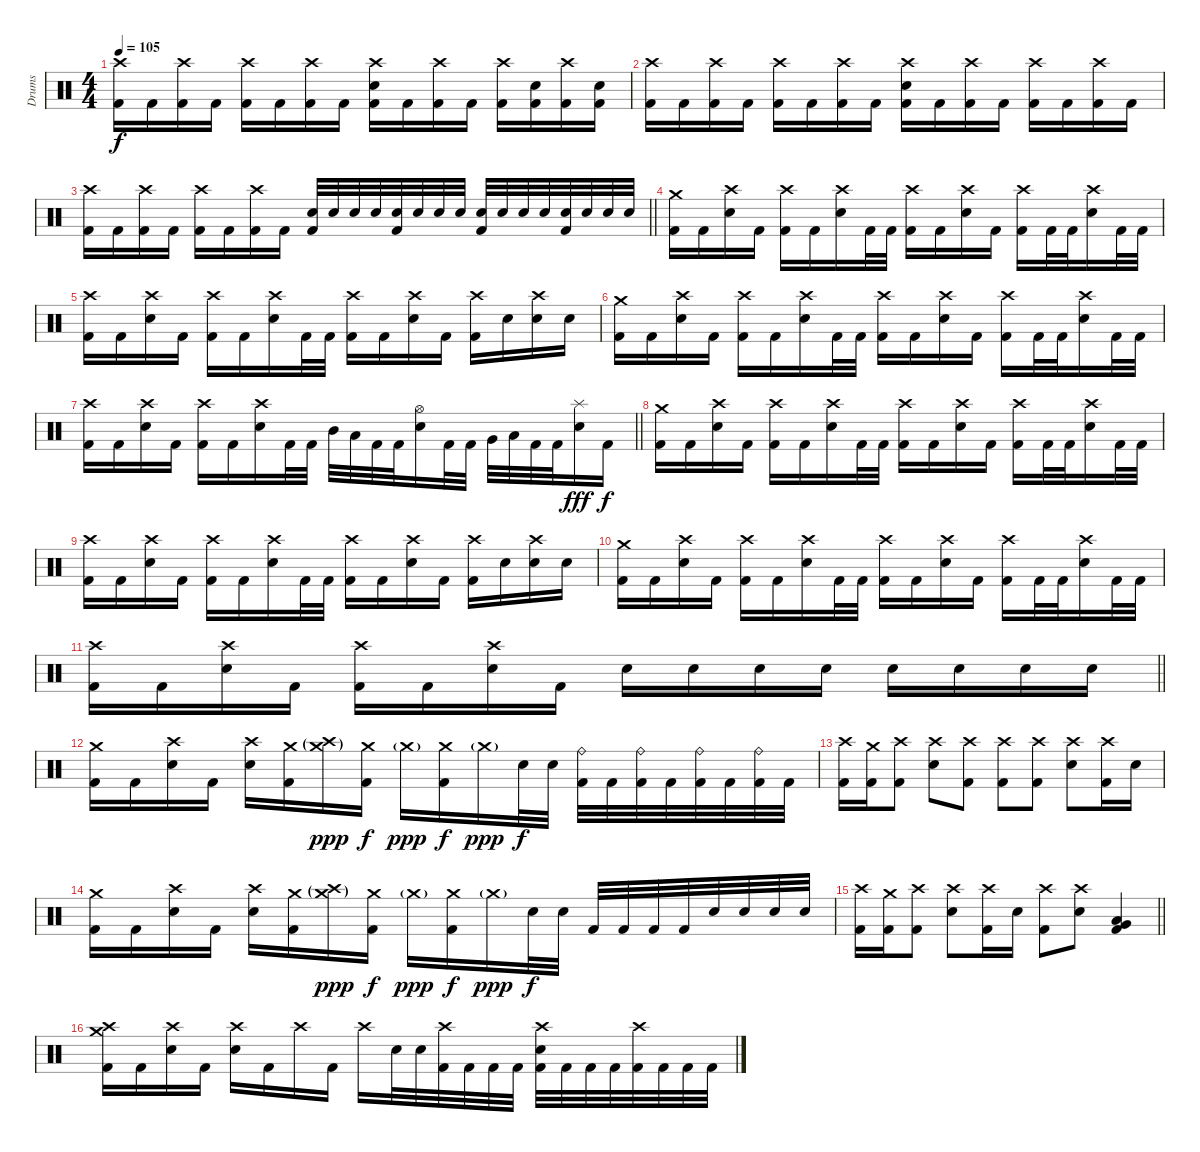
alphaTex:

\track ("Drums" "Drums") {instrument percussion}
\staff {score}
\articulation defaults
\ts (4 4)
\tempo 105
\clef neutral
\ks c
("Crash high (hit)" "Kick (hit) 2").16{dy f} "Kick (hit) 2".16 ("Crash high (hit)" "Kick (hit) 2").16 "Kick (hit) 2".16 ("Crash high (hit)" "Kick (hit) 2").16 "Kick (hit) 2".16 ("Crash high (hit)" "Kick (hit) 2").16 "Kick (hit) 2".16 ("Crash high (hit)" "Electric Snare (hit)" "Kick (hit) 2").16 "Kick (hit) 2".16 ("Crash high (hit)" "Kick (hit) 2").16 "Kick (hit) 2".16 ("Crash high (hit)" "Kick (hit) 2").16 ("Electric Snare (hit)" "Kick (hit) 2").16 ("Crash high (hit)" "Kick (hit) 2").16 ("Electric Snare (hit)" "Kick (hit) 2").16 |
("Crash high (hit)" "Kick (hit) 2").16 "Kick (hit) 2".16 ("Crash high (hit)" "Kick (hit) 2").16 "Kick (hit) 2".16 ("Crash high (hit)" "Kick (hit) 2").16 "Kick (hit) 2".16 ("Crash high (hit)" "Kick (hit) 2").16 "Kick (hit) 2".16 ("Crash high (hit)" "Electric Snare (hit)" "Kick (hit) 2").16 "Kick (hit) 2".16 ("Crash high (hit)" "Kick (hit) 2").16 "Kick (hit) 2".16 ("Crash high (hit)" "Kick (hit) 2").16 "Kick (hit) 2".16 ("Crash high (hit)" "Kick (hit) 2").16 "Kick (hit) 2".16 |
\barLineRight lightlight
("Crash high (hit)" "Kick (hit) 2").16 "Kick (hit) 2".16 ("Crash high (hit)" "Kick (hit) 2").16 "Kick (hit) 2".16 ("Crash high (hit)" "Kick (hit) 2").16 "Kick (hit) 2".16 ("Crash high (hit)" "Kick (hit) 2").16 "Kick (hit) 2".16 ("Electric Snare (hit)" "Kick (hit) 2").32 "Electric Snare (hit)".32 "Electric Snare (hit)".32 "Electric Snare (hit)".32 ("Electric Snare (hit)" "Kick (hit) 2").32 "Electric Snare (hit)".32 "Electric Snare (hit)".32 "Electric Snare (hit)".32 ("Electric Snare (hit)" "Kick (hit) 2").32 "Electric Snare (hit)".32 "Electric Snare (hit)".32 "Electric Snare (hit)".32 ("Electric Snare (hit)" "Kick (hit) 2").32 "Electric Snare (hit)".32 "Electric Snare (hit)".32 "Electric Snare (hit)".32 |
\section ("" "")
("Crash medium (hit)" "Kick (hit) 2").16 "Kick (hit) 2".16 ("Crash high (hit)" "Electric Snare (hit)").16 "Kick (hit) 2".16 ("Crash high (hit)" "Kick (hit) 2").16 "Kick (hit) 2".16 ("Crash high (hit)" "Electric Snare (hit)").16 "Kick (hit) 2".32 "Kick (hit) 2".32 ("Crash high (hit)" "Kick (hit) 2").16 "Kick (hit) 2".16 ("Crash high (hit)" "Electric Snare (hit)").16 "Kick (hit) 2".16 ("Crash high (hit)" "Kick (hit) 2").16 "Kick (hit) 2".32 "Kick (hit) 2".32 ("Crash high (hit)" "Electric Snare (hit)").16 "Kick (hit) 2".32 "Kick (hit) 2".32 |
("Crash high (hit)" "Kick (hit) 2").16 "Kick (hit) 2".16 ("Crash high (hit)" "Electric Snare (hit)").16 "Kick (hit) 2".16 ("Crash high (hit)" "Kick (hit) 2").16 "Kick (hit) 2".16 ("Crash high (hit)" "Electric Snare (hit)").16 "Kick (hit) 2".32 "Kick (hit) 2".32 ("Crash high (hit)" "Kick (hit) 2").16 "Kick (hit) 2".16 ("Crash high (hit)" "Electric Snare (hit)").16 "Kick (hit) 2".16 ("Crash high (hit)" "Kick (hit) 2").16 "Electric Snare (hit)".16 ("Crash high (hit)" "Electric Snare (hit)").16 "Electric Snare (hit)".16 |
("Crash medium (hit)" "Kick (hit) 2").16 "Kick (hit) 2".16 ("Crash high (hit)" "Electric Snare (hit)").16 "Kick (hit) 2".16 ("Crash high (hit)" "Kick (hit) 2").16 "Kick (hit) 2".16 ("Crash high (hit)" "Electric Snare (hit)").16 "Kick (hit) 2".32 "Kick (hit) 2".32 ("Crash high (hit)" "Kick (hit) 2").16 "Kick (hit) 2".16 ("Crash high (hit)" "Electric Snare (hit)").16 "Kick (hit) 2".16 ("Crash high (hit)" "Kick (hit) 2").16 "Kick (hit) 2".32 "Kick (hit) 2".32 ("Crash high (hit)" "Electric Snare (hit)").16 "Kick (hit) 2".32 "Kick (hit) 2".32 |
\barLineRight lightlight
("Crash high (hit)" "Kick (hit) 2").16 "Kick (hit) 2".16 ("Crash high (hit)" "Electric Snare (hit)").16 "Kick (hit) 2".16 ("Crash high (hit)" "Kick (hit) 2").16 "Kick (hit) 2".16 ("Crash high (hit)" "Electric Snare (hit)").16 "Kick (hit) 2".32 "Kick (hit) 2".32 "Mid Tom (hit)".32 "Low Tom (hit)".32 "Kick (hit) 2".32 "Kick (hit) 2".32 ("Hi-Hat (open)" "Electric Snare (hit)").16 "Kick (hit) 2".32 "Kick (hit) 2".32 "Very Low Tom (hit)".32 "Low Floor Tom (hit)".32 "Kick (hit) 2".32 "Kick (hit) 2".32 ("Splash (hit)" "Electric Snare (hit)").16{dy fff} "Kick (hit) 2".16{dy f} |
\section ("" "")
("Crash medium (hit)" "Kick (hit) 2").16 "Kick (hit) 2".16 ("Crash high (hit)" "Electric Snare (hit)").16 "Kick (hit) 2".16 ("Crash high (hit)" "Kick (hit) 2").16 "Kick (hit) 2".16 ("Crash high (hit)" "Electric Snare (hit)").16 "Kick (hit) 2".32 "Kick (hit) 2".32 ("Crash high (hit)" "Kick (hit) 2").16 "Kick (hit) 2".16 ("Crash high (hit)" "Electric Snare (hit)").16 "Kick (hit) 2".16 ("Crash high (hit)" "Kick (hit) 2").16 "Kick (hit) 2".32 "Kick (hit) 2".32 ("Crash high (hit)" "Electric Snare (hit)").16 "Kick (hit) 2".32 "Kick (hit) 2".32 |
("Crash high (hit)" "Kick (hit) 2").16 "Kick (hit) 2".16 ("Crash high (hit)" "Electric Snare (hit)").16 "Kick (hit) 2".16 ("Crash high (hit)" "Kick (hit) 2").16 "Kick (hit) 2".16 ("Crash high (hit)" "Electric Snare (hit)").16 "Kick (hit) 2".32 "Kick (hit) 2".32 ("Crash high (hit)" "Kick (hit) 2").16 "Kick (hit) 2".16 ("Crash high (hit)" "Electric Snare (hit)").16 "Kick (hit) 2".16 ("Crash high (hit)" "Kick (hit) 2").16 "Electric Snare (hit)".16 ("Crash high (hit)" "Electric Snare (hit)").16 "Electric Snare (hit)".16 |
("Crash medium (hit)" "Kick (hit) 2").16 "Kick (hit) 2".16 ("Crash high (hit)" "Electric Snare (hit)").16 "Kick (hit) 2".16 ("Crash high (hit)" "Kick (hit) 2").16 "Kick (hit) 2".16 ("Crash high (hit)" "Electric Snare (hit)").16 "Kick (hit) 2".32 "Kick (hit) 2".32 ("Crash high (hit)" "Kick (hit) 2").16 "Kick (hit) 2".16 ("Crash high (hit)" "Electric Snare (hit)").16 "Kick (hit) 2".16 ("Crash high (hit)" "Kick (hit) 2").16 "Kick (hit) 2".32 "Kick (hit) 2".32 ("Crash high (hit)" "Electric Snare (hit)").16 "Kick (hit) 2".32 "Kick (hit) 2".32 |
\barLineRight lightlight
("Crash high (hit)" "Kick (hit) 2").16 "Kick (hit) 2".16 ("Crash high (hit)" "Electric Snare (hit)").16 "Kick (hit) 2".16 ("Crash high (hit)" "Kick (hit) 2").16 "Kick (hit) 2".16 ("Crash high (hit)" "Electric Snare (hit)").16 "Kick (hit) 2".16 "Electric Snare (hit)".16 "Electric Snare (hit)".16 "Electric Snare (hit)".16 "Electric Snare (hit)".16 "Electric Snare (hit)".16 "Electric Snare (hit)".16 "Electric Snare (hit)".16 "Electric Snare (hit)".16 |
\section ("" "")
("Crash medium (hit)" "Kick (hit) 2").16 "Kick (hit) 2".16 ("Crash high (hit)" "Electric Snare (hit)").16 "Kick (hit) 2".16 ("Crash high (hit)" "Electric Snare (hit)").16 ("Crash medium (hit)" "Kick (hit) 2").16 ("Crash medium (hit)"{g} "Crash high (hit)"{g}).16{dy ppp} ("Crash medium (hit)" "Kick (hit) 2").16{dy f} "Crash medium (hit)"{g}.16{dy ppp} ("Crash medium (hit)" "Kick (hit) 2").16{dy f} "Crash medium (hit)"{g}.16{dy ppp} "Electric Snare (hit)".32{dy f} "Electric Snare (hit)".32 ("Ride (bell)" "Kick (hit) 2").32 "Kick (hit) 2".32 ("Ride (bell)" "Kick (hit) 2").32 "Kick (hit) 2".32 ("Ride (bell)" "Kick (hit) 2").32 "Kick (hit) 2".32 ("Ride (bell)" "Kick (hit) 2").32 "Kick (hit) 2".32 |
("Crash high (hit)" "Kick (hit) 2").16 ("Crash medium (hit)" "Kick (hit) 2").16 ("Crash high (hit)" "Kick (hit) 2").8 ("Crash high (hit)" "Electric Snare (hit)").8 ("Crash high (hit)" "Kick (hit) 2").8 ("Crash high (hit)" "Kick (hit) 2").8 ("Crash high (hit)" "Kick (hit) 2").8 ("Crash high (hit)" "Electric Snare (hit)").8 ("Crash high (hit)" "Kick (hit) 2").16 "Electric Snare (hit)".16 |
("Crash medium (hit)" "Kick (hit) 2").16 "Kick (hit) 2".16 ("Crash high (hit)" "Electric Snare (hit)").16 "Kick (hit) 2".16 ("Crash high (hit)" "Electric Snare (hit)").16 ("Crash medium (hit)" "Kick (hit) 2").16 ("Crash medium (hit)"{g} "Crash high (hit)"{g}).16{dy ppp} ("Crash medium (hit)" "Kick (hit) 2").16{dy f} "Crash medium (hit)"{g}.16{dy ppp} ("Crash medium (hit)" "Kick (hit) 2").16{dy f} "Crash medium (hit)"{g}.16{dy ppp} "Electric Snare (hit)".32{dy f} "Electric Snare (hit)".32 "Kick (hit) 2".32 "Kick (hit) 2".32 "Kick (hit) 2".32 "Kick (hit) 2".32 "Electric Snare (hit)".32 "Electric Snare (hit)".32 "Electric Snare (hit)".32 "Electric Snare (hit)".32 |
\barLineRight lightlight
("Crash high (hit)" "Kick (hit) 2").16 ("Crash medium (hit)" "Kick (hit) 2").16 ("Crash high (hit)" "Kick (hit) 2").8 ("Crash high (hit)" "Electric Snare (hit)").8 ("Crash high (hit)" "Kick (hit) 2").16 "Electric Snare (hit)".16 ("Crash high (hit)" "Kick (hit) 2").8 ("Crash high (hit)" "Electric Snare (hit)").8 ("Very Low Tom (hit)" "Low Floor Tom (hit)" "Kick (hit) 2").4 |
\section ("" "")
("Crash high (hit)" "Crash medium (hit)" "Kick (hit) 2").16 "Kick (hit) 2".16 ("Crash high (hit)" "Electric Snare (hit)").16 "Kick (hit) 2".16 ("Crash high (hit)" "Electric Snare (hit)").16 "Kick (hit) 2".16 "Crash high (hit)".16 "Kick (hit) 2".16 "Crash high (hit)".16 "Electric Snare (hit)".32 "Electric Snare (hit)".32 ("Crash high (hit)" "Kick (hit) 2").32 "Kick (hit) 2".32 "Kick (hit) 2".32 "Kick (hit) 2".32 ("Crash high (hit)" "Electric Snare (hit)" "Kick (hit) 2").32 "Kick (hit) 2".32 "Kick (hit) 2".32 "Kick (hit) 2".32 ("Crash high (hit)" "Kick (hit) 2").32 "Kick (hit) 2".32 "Kick (hit) 2".32 "Kick (hit) 2".32
